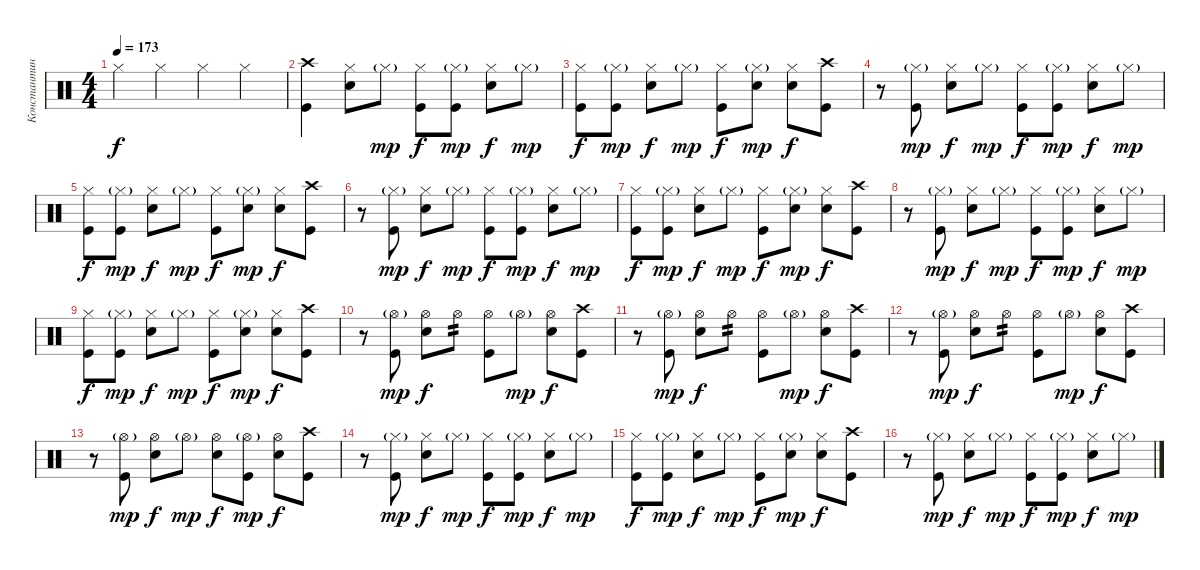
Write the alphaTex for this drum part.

\track ("Константин Дементьев" "Константин") {instrument percussion}
\staff {score}
\articulation defaults
\ts (4 4)
\tempo 173
\clef neutral
\ks c "Hi-Hat (closed)".4{dy f} "Hi-Hat (closed)".4 "Hi-Hat (closed)".4 "Hi-Hat (closed)".4
|
("Crash high (hit)" "Kick (hit)").4 ("Hi-Hat (closed)" "Electric Snare (hit)").8 "Hi-Hat (closed)"{g}.8{dy mp} ("Hi-Hat (closed)" "Kick (hit)").8{dy f} ("Hi-Hat (closed)"{g} "Kick (hit)").8{dy mp} ("Hi-Hat (closed)" "Electric Snare (hit)").8{dy f} "Hi-Hat (closed)"{g}.8{dy mp} |
("Hi-Hat (closed)" "Kick (hit)").8{dy f} ("Hi-Hat (closed)"{g} "Kick (hit)").8{dy mp} ("Hi-Hat (closed)" "Electric Snare (hit)").8{dy f} "Hi-Hat (closed)"{g}.8{dy mp} ("Hi-Hat (closed)" "Kick (hit)").8{dy f} ("Hi-Hat (closed)"{g} "Electric Snare (hit)").8{dy mp} ("Hi-Hat (closed)" "Electric Snare (hit)").8{dy f} ("Crash high (hit)" "Kick (hit)").8 |
r.8 ("Hi-Hat (closed)"{g} "Kick (hit)").8{dy mp} ("Hi-Hat (closed)" "Electric Snare (hit)").8{dy f} "Hi-Hat (closed)"{g}.8{dy mp} ("Hi-Hat (closed)" "Kick (hit)").8{dy f} ("Hi-Hat (closed)"{g} "Kick (hit)").8{dy mp} ("Hi-Hat (closed)" "Electric Snare (hit)").8{dy f} "Hi-Hat (closed)"{g}.8{dy mp} |
("Hi-Hat (closed)" "Kick (hit)").8{dy f} ("Hi-Hat (closed)"{g} "Kick (hit)").8{dy mp} ("Hi-Hat (closed)" "Electric Snare (hit)").8{dy f} "Hi-Hat (closed)"{g}.8{dy mp} ("Hi-Hat (closed)" "Kick (hit)").8{dy f} ("Hi-Hat (closed)"{g} "Electric Snare (hit)").8{dy mp} ("Hi-Hat (closed)" "Electric Snare (hit)").8{dy f} ("Crash high (hit)" "Kick (hit)").8 |
r.8 ("Hi-Hat (closed)"{g} "Kick (hit)").8{dy mp} ("Hi-Hat (closed)" "Electric Snare (hit)").8{dy f} "Hi-Hat (closed)"{g}.8{dy mp} ("Hi-Hat (closed)" "Kick (hit)").8{dy f} ("Hi-Hat (closed)"{g} "Kick (hit)").8{dy mp} ("Hi-Hat (closed)" "Electric Snare (hit)").8{dy f} "Hi-Hat (closed)"{g}.8{dy mp} |
("Hi-Hat (closed)" "Kick (hit)").8{dy f} ("Hi-Hat (closed)"{g} "Kick (hit)").8{dy mp} ("Hi-Hat (closed)" "Electric Snare (hit)").8{dy f} "Hi-Hat (closed)"{g}.8{dy mp} ("Hi-Hat (closed)" "Kick (hit)").8{dy f} ("Hi-Hat (closed)"{g} "Electric Snare (hit)").8{dy mp} ("Hi-Hat (closed)" "Electric Snare (hit)").8{dy f} ("Crash high (hit)" "Kick (hit)").8 |
r.8 ("Hi-Hat (closed)"{g} "Kick (hit)").8{dy mp} ("Hi-Hat (closed)" "Electric Snare (hit)").8{dy f} "Hi-Hat (closed)"{g}.8{dy mp} ("Hi-Hat (closed)" "Kick (hit)").8{dy f} ("Hi-Hat (closed)"{g} "Kick (hit)").8{dy mp} ("Hi-Hat (closed)" "Electric Snare (hit)").8{dy f} "Hi-Hat (closed)"{g}.8{dy mp} |
("Hi-Hat (closed)" "Kick (hit)").8{dy f} ("Hi-Hat (closed)"{g} "Kick (hit)").8{dy mp} ("Hi-Hat (closed)" "Electric Snare (hit)").8{dy f} "Hi-Hat (closed)"{g}.8{dy mp} ("Hi-Hat (closed)" "Kick (hit)").8{dy f} ("Hi-Hat (closed)"{g} "Electric Snare (hit)").8{dy mp} ("Hi-Hat (closed)" "Electric Snare (hit)").8{dy f} ("Crash high (hit)" "Kick (hit)").8 |
r.8 ("Hi-Hat (open)"{g} "Kick (hit)").8{dy mp} ("Hi-Hat (open)" "Electric Snare (hit)").8{dy f} "Hi-Hat (open)".8{tp 2} ("Hi-Hat (open)" "Kick (hit)").8 "Hi-Hat (open)"{g}.8{dy mp} ("Hi-Hat (open)" "Electric Snare (hit)").8{dy f} ("Crash high (hit)" "Kick (hit)").8 |
r.8 ("Hi-Hat (open)"{g} "Kick (hit)").8{dy mp} ("Hi-Hat (open)" "Electric Snare (hit)").8{dy f} "Hi-Hat (open)".8{tp 2} ("Hi-Hat (open)" "Kick (hit)").8 "Hi-Hat (open)"{g}.8{dy mp} ("Hi-Hat (open)" "Electric Snare (hit)").8{dy f} ("Crash high (hit)" "Kick (hit)").8 |
r.8 ("Hi-Hat (open)"{g} "Kick (hit)").8{dy mp} ("Hi-Hat (open)" "Electric Snare (hit)").8{dy f} "Hi-Hat (open)".8{tp 2} ("Hi-Hat (open)" "Kick (hit)").8 "Hi-Hat (open)"{g}.8{dy mp} ("Hi-Hat (open)" "Electric Snare (hit)").8{dy f} ("Crash high (hit)" "Kick (hit)").8 |
r.8 ("Hi-Hat (open)"{g} "Kick (hit)").8{dy mp} ("Hi-Hat (open)" "Electric Snare (hit)").8{dy f} "Hi-Hat (open)"{g}.8{dy mp} ("Hi-Hat (open)" "Electric Snare (hit)").8{dy f} ("Hi-Hat (open)"{g} "Kick (hit)").8{dy mp} ("Hi-Hat (open)" "Electric Snare (hit)").8{dy f} ("Crash high (hit)" "Kick (hit)").8 |
r.8 ("Hi-Hat (closed)"{g} "Kick (hit)").8{dy mp} ("Hi-Hat (closed)" "Electric Snare (hit)").8{dy f} "Hi-Hat (closed)"{g}.8{dy mp} ("Hi-Hat (closed)" "Kick (hit)").8{dy f} ("Hi-Hat (closed)"{g} "Kick (hit)").8{dy mp} ("Hi-Hat (closed)" "Electric Snare (hit)").8{dy f} "Hi-Hat (closed)"{g}.8{dy mp} |
("Hi-Hat (closed)" "Kick (hit)").8{dy f} ("Hi-Hat (closed)"{g} "Kick (hit)").8{dy mp} ("Hi-Hat (closed)" "Electric Snare (hit)").8{dy f} "Hi-Hat (closed)"{g}.8{dy mp} ("Hi-Hat (closed)" "Kick (hit)").8{dy f} ("Hi-Hat (closed)"{g} "Electric Snare (hit)").8{dy mp} ("Hi-Hat (closed)" "Electric Snare (hit)").8{dy f} ("Crash high (hit)" "Kick (hit)").8 |
r.8 ("Hi-Hat (closed)"{g} "Kick (hit)").8{dy mp} ("Hi-Hat (closed)" "Electric Snare (hit)").8{dy f} "Hi-Hat (closed)"{g}.8{dy mp} ("Hi-Hat (closed)" "Kick (hit)").8{dy f} ("Hi-Hat (closed)"{g} "Kick (hit)").8{dy mp} ("Hi-Hat (closed)" "Electric Snare (hit)").8{dy f} "Hi-Hat (closed)"{g}.8{dy mp}
